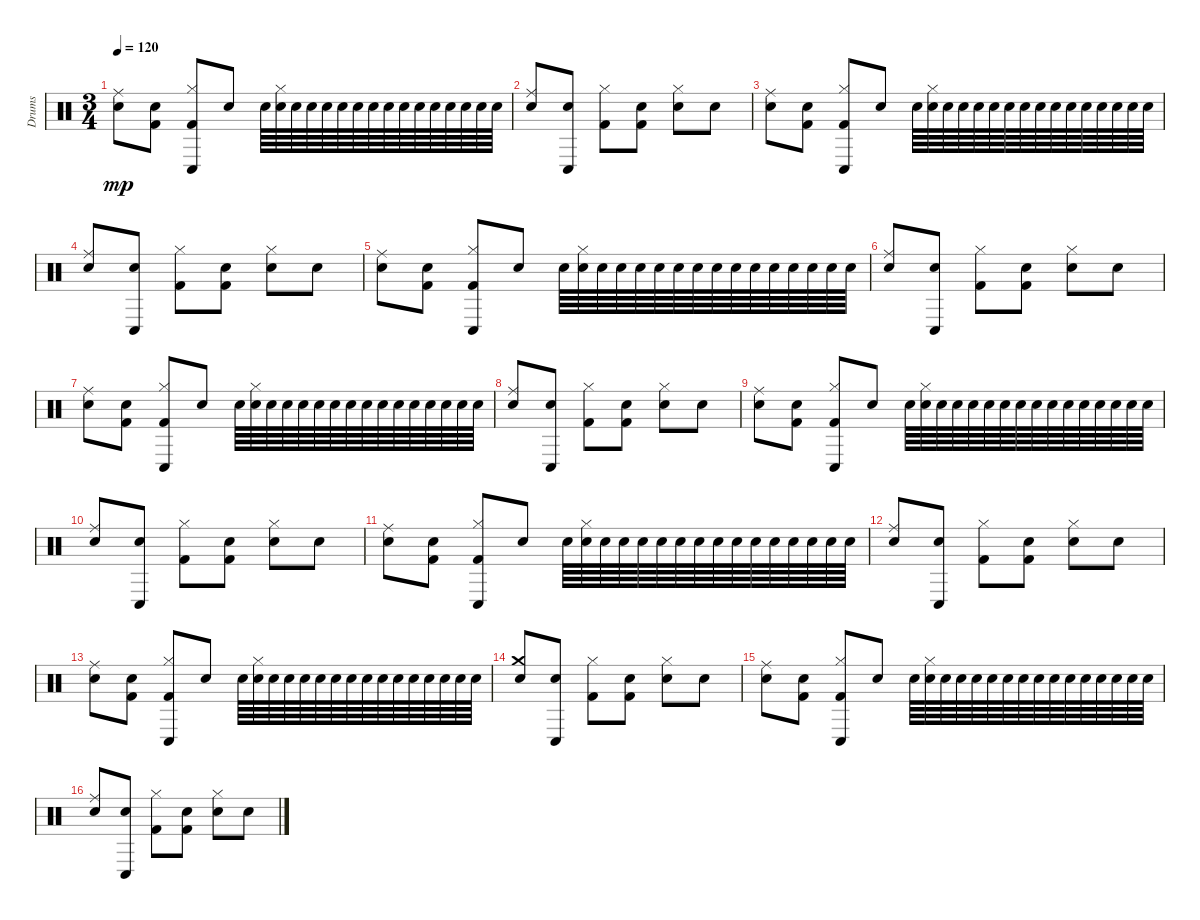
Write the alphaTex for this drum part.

\track ("Drums" "Drums") {instrument percussion}
\staff {score}
\articulation defaults
\ts (3 4)
\tempo 120
\clef neutral
\ks c
("Ride (middle)" "Snare (hit) 2").8{dy mp} ("Snare (hit) 2" "Kick (hit) 2").8 ("Hi-Hat (closed)" "Kick (hit) 2" "Conga low (hit)").8 "Snare (hit) 2".8 "Snare (hit) 2".64 ("Hi-Hat (closed)" "Snare (hit) 2").64 "Snare (hit) 2".64 "Snare (hit) 2".64 "Snare (hit) 2".64 "Snare (hit) 2".64 "Snare (hit) 2".64 "Snare (hit) 2".64 "Snare (hit) 2".64 "Snare (hit) 2".64 "Snare (hit) 2".64 "Snare (hit) 2".64 "Snare (hit) 2".64 "Snare (hit) 2".64 "Snare (hit) 2".64 "Snare (hit) 2".64 |
("Ride (middle)" "Snare (hit) 2").8 ("Snare (hit) 2" "Conga low (hit)").8 ("Hi-Hat (closed)" "Kick (hit) 2").8 ("Snare (hit) 2" "Kick (hit) 2").8 ("Hi-Hat (closed)" "Snare (hit) 2").8 "Snare (hit) 2".8 |
("Ride (middle)" "Snare (hit) 2").8 ("Snare (hit) 2" "Kick (hit) 2").8 ("Hi-Hat (closed)" "Kick (hit) 2" "Conga low (hit)").8 "Snare (hit) 2".8 "Snare (hit) 2".64 ("Hi-Hat (closed)" "Snare (hit) 2").64 "Snare (hit) 2".64 "Snare (hit) 2".64 "Snare (hit) 2".64 "Snare (hit) 2".64 "Snare (hit) 2".64 "Snare (hit) 2".64 "Snare (hit) 2".64 "Snare (hit) 2".64 "Snare (hit) 2".64 "Snare (hit) 2".64 "Snare (hit) 2".64 "Snare (hit) 2".64 "Snare (hit) 2".64 "Snare (hit) 2".64 |
("Ride (middle)" "Snare (hit) 2").8 ("Snare (hit) 2" "Conga low (hit)").8 ("Hi-Hat (closed)" "Kick (hit) 2").8 ("Snare (hit) 2" "Kick (hit) 2").8 ("Hi-Hat (closed)" "Snare (hit) 2").8 "Snare (hit) 2".8 |
("Ride (middle)" "Snare (hit) 2").8 ("Snare (hit) 2" "Kick (hit) 2").8 ("Hi-Hat (closed)" "Kick (hit) 2" "Conga low (hit)").8 "Snare (hit) 2".8 "Snare (hit) 2".64 ("Hi-Hat (closed)" "Snare (hit) 2").64 "Snare (hit) 2".64 "Snare (hit) 2".64 "Snare (hit) 2".64 "Snare (hit) 2".64 "Snare (hit) 2".64 "Snare (hit) 2".64 "Snare (hit) 2".64 "Snare (hit) 2".64 "Snare (hit) 2".64 "Snare (hit) 2".64 "Snare (hit) 2".64 "Snare (hit) 2".64 "Snare (hit) 2".64 "Snare (hit) 2".64 |
("Ride (middle)" "Snare (hit) 2").8 ("Snare (hit) 2" "Conga low (hit)").8 ("Hi-Hat (closed)" "Kick (hit) 2").8 ("Snare (hit) 2" "Kick (hit) 2").8 ("Hi-Hat (closed)" "Snare (hit) 2").8 "Snare (hit) 2".8 |
("Ride (middle)" "Snare (hit) 2").8 ("Snare (hit) 2" "Kick (hit) 2").8 ("Hi-Hat (closed)" "Kick (hit) 2" "Conga low (hit)").8 "Snare (hit) 2".8 "Snare (hit) 2".64 ("Hi-Hat (closed)" "Snare (hit) 2").64 "Snare (hit) 2".64 "Snare (hit) 2".64 "Snare (hit) 2".64 "Snare (hit) 2".64 "Snare (hit) 2".64 "Snare (hit) 2".64 "Snare (hit) 2".64 "Snare (hit) 2".64 "Snare (hit) 2".64 "Snare (hit) 2".64 "Snare (hit) 2".64 "Snare (hit) 2".64 "Snare (hit) 2".64 "Snare (hit) 2".64 |
("Ride (middle)" "Snare (hit) 2").8 ("Snare (hit) 2" "Conga low (hit)").8 ("Hi-Hat (closed)" "Kick (hit) 2").8 ("Snare (hit) 2" "Kick (hit) 2").8 ("Hi-Hat (closed)" "Snare (hit) 2").8 "Snare (hit) 2".8 |
("Ride (middle)" "Snare (hit) 2").8 ("Snare (hit) 2" "Kick (hit) 2").8 ("Hi-Hat (closed)" "Kick (hit) 2" "Conga low (hit)").8 "Snare (hit) 2".8 "Snare (hit) 2".64 ("Hi-Hat (closed)" "Snare (hit) 2").64 "Snare (hit) 2".64 "Snare (hit) 2".64 "Snare (hit) 2".64 "Snare (hit) 2".64 "Snare (hit) 2".64 "Snare (hit) 2".64 "Snare (hit) 2".64 "Snare (hit) 2".64 "Snare (hit) 2".64 "Snare (hit) 2".64 "Snare (hit) 2".64 "Snare (hit) 2".64 "Snare (hit) 2".64 "Snare (hit) 2".64 |
("Ride (middle)" "Snare (hit) 2").8 ("Snare (hit) 2" "Conga low (hit)").8 ("Hi-Hat (closed)" "Kick (hit) 2").8 ("Snare (hit) 2" "Kick (hit) 2").8 ("Hi-Hat (closed)" "Snare (hit) 2").8 "Snare (hit) 2".8 |
("Ride (middle)" "Snare (hit) 2").8 ("Snare (hit) 2" "Kick (hit) 2").8 ("Hi-Hat (closed)" "Kick (hit) 2" "Conga low (hit)").8 "Snare (hit) 2".8 "Snare (hit) 2".64 ("Hi-Hat (closed)" "Snare (hit) 2").64 "Snare (hit) 2".64 "Snare (hit) 2".64 "Snare (hit) 2".64 "Snare (hit) 2".64 "Snare (hit) 2".64 "Snare (hit) 2".64 "Snare (hit) 2".64 "Snare (hit) 2".64 "Snare (hit) 2".64 "Snare (hit) 2".64 "Snare (hit) 2".64 "Snare (hit) 2".64 "Snare (hit) 2".64 "Snare (hit) 2".64 |
("Ride (middle)" "Snare (hit) 2").8 ("Snare (hit) 2" "Conga low (hit)").8 ("Hi-Hat (closed)" "Kick (hit) 2").8 ("Snare (hit) 2" "Kick (hit) 2").8 ("Hi-Hat (closed)" "Snare (hit) 2").8 "Snare (hit) 2".8 |
("Ride (middle)" "Snare (hit) 2").8 ("Snare (hit) 2" "Kick (hit) 2").8 ("Hi-Hat (closed)" "Kick (hit) 2" "Conga low (hit)").8 "Snare (hit) 2".8 "Snare (hit) 2".64 ("Hi-Hat (closed)" "Snare (hit) 2").64 "Snare (hit) 2".64 "Snare (hit) 2".64 "Snare (hit) 2".64 "Snare (hit) 2".64 "Snare (hit) 2".64 "Snare (hit) 2".64 "Snare (hit) 2".64 "Snare (hit) 2".64 "Snare (hit) 2".64 "Snare (hit) 2".64 "Snare (hit) 2".64 "Snare (hit) 2".64 "Snare (hit) 2".64 "Snare (hit) 2".64 |
("Crash medium (hit)" "Snare (hit) 2").8 ("Snare (hit) 2" "Conga low (hit)").8 ("Hi-Hat (closed)" "Kick (hit) 2").8 ("Snare (hit) 2" "Kick (hit) 2").8 ("Hi-Hat (closed)" "Snare (hit) 2").8 "Snare (hit) 2".8 |
("Ride (middle)" "Snare (hit) 2").8 ("Snare (hit) 2" "Kick (hit) 2").8 ("Hi-Hat (closed)" "Kick (hit) 2" "Conga low (hit)").8 "Snare (hit) 2".8 "Snare (hit) 2".64 ("Hi-Hat (closed)" "Snare (hit) 2").64 "Snare (hit) 2".64 "Snare (hit) 2".64 "Snare (hit) 2".64 "Snare (hit) 2".64 "Snare (hit) 2".64 "Snare (hit) 2".64 "Snare (hit) 2".64 "Snare (hit) 2".64 "Snare (hit) 2".64 "Snare (hit) 2".64 "Snare (hit) 2".64 "Snare (hit) 2".64 "Snare (hit) 2".64 "Snare (hit) 2".64 |
("Ride (middle)" "Snare (hit) 2").8 ("Snare (hit) 2" "Conga low (hit)").8 ("Hi-Hat (closed)" "Kick (hit) 2").8 ("Snare (hit) 2" "Kick (hit) 2").8 ("Hi-Hat (closed)" "Snare (hit) 2").8 "Snare (hit) 2".8
